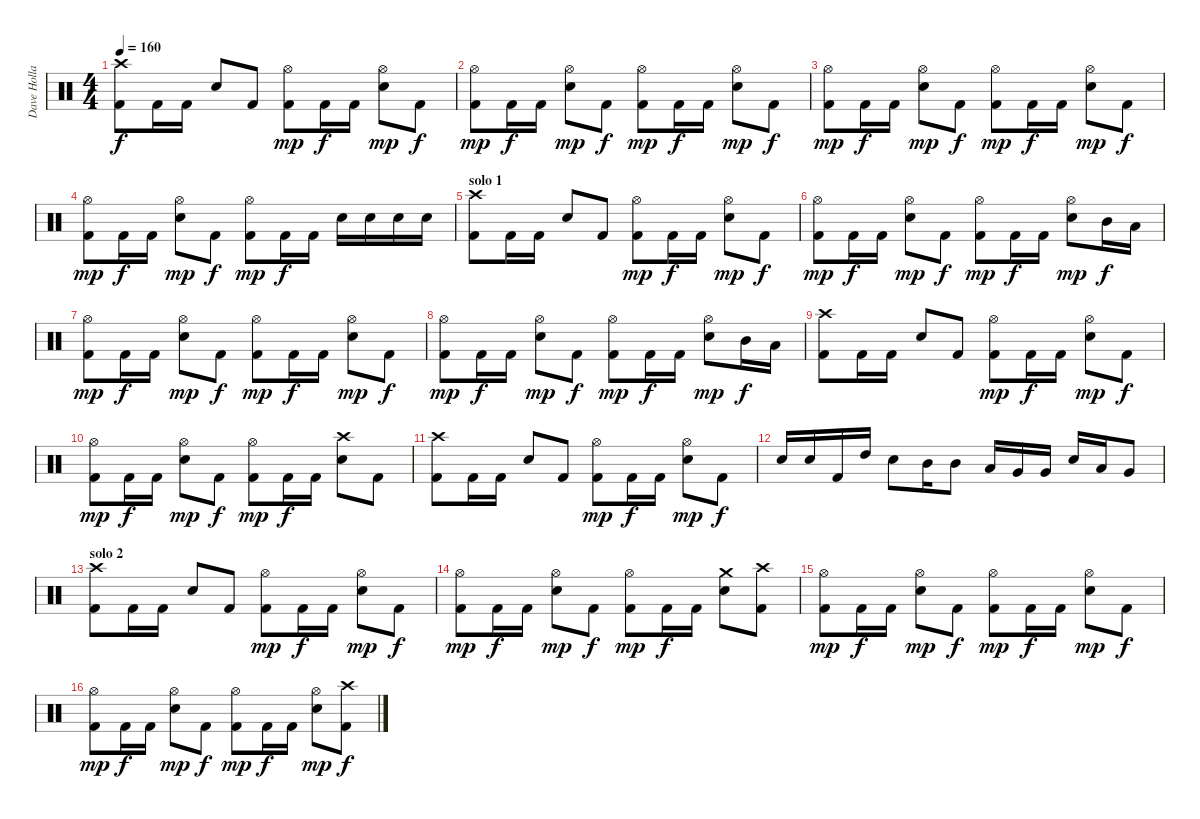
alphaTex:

\track ("Dave Holland" "Dave Holla") {instrument percussion}
\staff {score}
\articulation defaults
\ts (4 4)
\tempo 160
\clef neutral
\ks c
("Kick (hit) 2" "Crash high (hit)").8{dy f} "Kick (hit) 2".16 "Kick (hit) 2".16 "Snare (hit) 2".8 "Kick (hit) 2".8 ("Kick (hit) 2" "Hi-Hat (open)").8{dy mp} "Kick (hit) 2".16{dy f} "Kick (hit) 2".16 ("Hi-Hat (open)" "Snare (hit) 2").8{dy mp} "Kick (hit) 2".8{dy f} |
("Kick (hit) 2" "Hi-Hat (open)").8{dy mp} "Kick (hit) 2".16{dy f} "Kick (hit) 2".16 ("Hi-Hat (open)" "Snare (hit) 2").8{dy mp} "Kick (hit) 2".8{dy f} ("Kick (hit) 2" "Hi-Hat (open)").8{dy mp} "Kick (hit) 2".16{dy f} "Kick (hit) 2".16 ("Hi-Hat (open)" "Snare (hit) 2").8{dy mp} "Kick (hit) 2".8{dy f} |
("Kick (hit) 2" "Hi-Hat (open)").8{dy mp} "Kick (hit) 2".16{dy f} "Kick (hit) 2".16 ("Hi-Hat (open)" "Snare (hit) 2").8{dy mp} "Kick (hit) 2".8{dy f} ("Kick (hit) 2" "Hi-Hat (open)").8{dy mp} "Kick (hit) 2".16{dy f} "Kick (hit) 2".16 ("Hi-Hat (open)" "Snare (hit) 2").8{dy mp} "Kick (hit) 2".8{dy f} |
("Kick (hit) 2" "Hi-Hat (open)").8{dy mp} "Kick (hit) 2".16{dy f} "Kick (hit) 2".16 ("Hi-Hat (open)" "Snare (hit) 2").8{dy mp} "Kick (hit) 2".8{dy f} ("Kick (hit) 2" "Hi-Hat (open)").8{dy mp} "Kick (hit) 2".16{dy f} "Kick (hit) 2".16 "Snare (hit) 2".16 "Snare (hit) 2".16 "Snare (hit) 2".16 "Snare (hit) 2".16 |
\section ("" "solo 1")
("Kick (hit) 2" "Crash high (hit)").8 "Kick (hit) 2".16 "Kick (hit) 2".16 "Snare (hit) 2".8 "Kick (hit) 2".8 ("Kick (hit) 2" "Hi-Hat (open)").8{dy mp} "Kick (hit) 2".16{dy f} "Kick (hit) 2".16 ("Hi-Hat (open)" "Snare (hit) 2").8{dy mp} "Kick (hit) 2".8{dy f} |
("Kick (hit) 2" "Hi-Hat (open)").8{dy mp} "Kick (hit) 2".16{dy f} "Kick (hit) 2".16 ("Hi-Hat (open)" "Snare (hit) 2").8{dy mp} "Kick (hit) 2".8{dy f} ("Kick (hit) 2" "Hi-Hat (open)").8{dy mp} "Kick (hit) 2".16{dy f} "Kick (hit) 2".16 ("Hi-Hat (open)" "Snare (hit) 2").8{dy mp} "Mid Tom (hit)".16{dy f} "Low Tom (hit)".16 |
("Kick (hit) 2" "Hi-Hat (open)").8{dy mp} "Kick (hit) 2".16{dy f} "Kick (hit) 2".16 ("Hi-Hat (open)" "Snare (hit) 2").8{dy mp} "Kick (hit) 2".8{dy f} ("Kick (hit) 2" "Hi-Hat (open)").8{dy mp} "Kick (hit) 2".16{dy f} "Kick (hit) 2".16 ("Hi-Hat (open)" "Snare (hit) 2").8{dy mp} "Kick (hit) 2".8{dy f} |
("Kick (hit) 2" "Hi-Hat (open)").8{dy mp} "Kick (hit) 2".16{dy f} "Kick (hit) 2".16 ("Hi-Hat (open)" "Snare (hit) 2").8{dy mp} "Kick (hit) 2".8{dy f} ("Kick (hit) 2" "Hi-Hat (open)").8{dy mp} "Kick (hit) 2".16{dy f} "Kick (hit) 2".16 ("Hi-Hat (open)" "Snare (hit) 2").8{dy mp} "Mid Tom (hit)".16{dy f} "Low Tom (hit)".16 |
("Kick (hit) 2" "Crash high (hit)").8 "Kick (hit) 2".16 "Kick (hit) 2".16 "Snare (hit) 2".8 "Kick (hit) 2".8 ("Kick (hit) 2" "Hi-Hat (open)").8{dy mp} "Kick (hit) 2".16{dy f} "Kick (hit) 2".16 ("Hi-Hat (open)" "Snare (hit) 2").8{dy mp} "Kick (hit) 2".8{dy f} |
("Kick (hit) 2" "Hi-Hat (open)").8{dy mp} "Kick (hit) 2".16{dy f} "Kick (hit) 2".16 ("Hi-Hat (open)" "Snare (hit) 2").8{dy mp} "Kick (hit) 2".8{dy f} ("Kick (hit) 2" "Hi-Hat (open)").8{dy mp} "Kick (hit) 2".16{dy f} "Kick (hit) 2".16 ("Crash high (hit)" "Snare (hit) 2").8 "Kick (hit) 2".8 |
("Kick (hit) 2" "Crash high (hit)").8 "Kick (hit) 2".16 "Kick (hit) 2".16 "Snare (hit) 2".8 "Kick (hit) 2".8 ("Kick (hit) 2" "Hi-Hat (open)").8{dy mp} "Kick (hit) 2".16{dy f} "Kick (hit) 2".16 ("Hi-Hat (open)" "Snare (hit) 2").8{dy mp} "Kick (hit) 2".8{dy f} |
"Snare (hit) 2".16 "Snare (hit) 2".16 "Kick (hit) 2".16 "High Tom (hit)".16 "Snare (hit) 2".8 "Mid Tom (hit)".16 "Mid Tom (hit)".8 "Low Tom (hit)".16 "Very Low Tom (hit)".16 "Very Low Tom (hit)".16 "Snare (hit) 2".16 "Low Tom (hit)".16 "Very Low Tom (hit)".8 |
\section ("" "solo 2")
("Kick (hit) 2" "Crash high (hit)").8 "Kick (hit) 2".16 "Kick (hit) 2".16 "Snare (hit) 2".8 "Kick (hit) 2".8 ("Kick (hit) 2" "Hi-Hat (open)").8{dy mp} "Kick (hit) 2".16{dy f} "Kick (hit) 2".16 ("Hi-Hat (open)" "Snare (hit) 2").8{dy mp} "Kick (hit) 2".8{dy f} |
("Kick (hit) 2" "Hi-Hat (open)").8{dy mp} "Kick (hit) 2".16{dy f} "Kick (hit) 2".16 ("Hi-Hat (open)" "Snare (hit) 2").8{dy mp} "Kick (hit) 2".8{dy f} ("Kick (hit) 2" "Hi-Hat (open)").8{dy mp} "Kick (hit) 2".16{dy f} "Kick (hit) 2".16 ("Crash medium (hit)" "Snare (hit) 2").8 ("Kick (hit) 2" "Crash high (hit)").8 |
("Kick (hit) 2" "Hi-Hat (open)").8{dy mp} "Kick (hit) 2".16{dy f} "Kick (hit) 2".16 ("Hi-Hat (open)" "Snare (hit) 2").8{dy mp} "Kick (hit) 2".8{dy f} ("Kick (hit) 2" "Hi-Hat (open)").8{dy mp} "Kick (hit) 2".16{dy f} "Kick (hit) 2".16 ("Hi-Hat (open)" "Snare (hit) 2").8{dy mp} "Kick (hit) 2".8{dy f} |
("Kick (hit) 2" "Hi-Hat (open)").8{dy mp} "Kick (hit) 2".16{dy f} "Kick (hit) 2".16 ("Hi-Hat (open)" "Snare (hit) 2").8{dy mp} "Kick (hit) 2".8{dy f} ("Kick (hit) 2" "Hi-Hat (open)").8{dy mp} "Kick (hit) 2".16{dy f} "Kick (hit) 2".16 ("Hi-Hat (open)" "Snare (hit) 2").8{dy mp} ("Kick (hit) 2" "Crash high (hit)").8{dy f}
